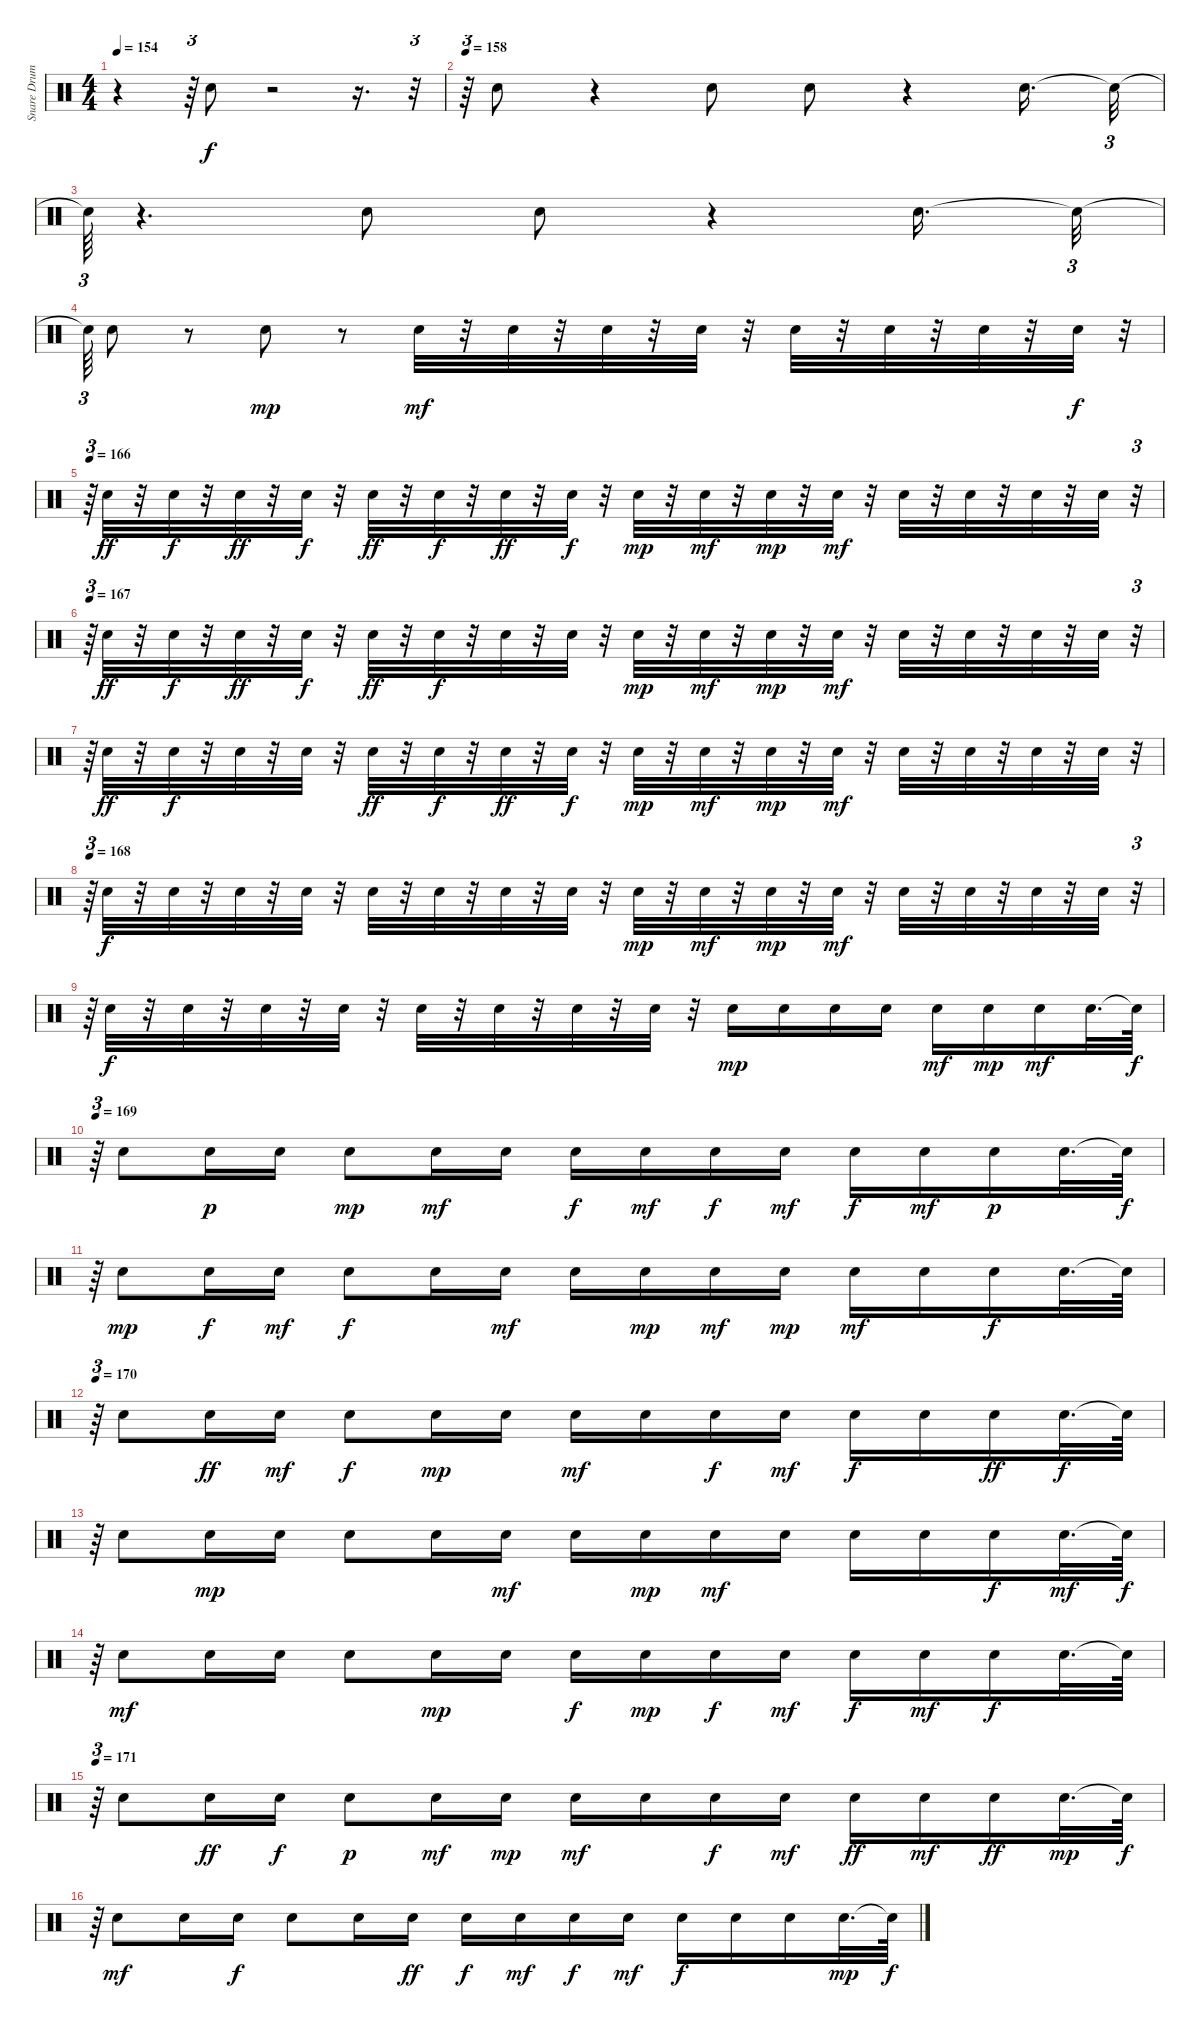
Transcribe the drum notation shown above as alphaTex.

\track ("Snare Drums" "Snare Drum") {instrument percussion}
\staff {score}
\articulation defaults
\ts (4 4)
\tempo 154
\clef neutral
\ks c
r.4{dy f} r.64{tu (3 2)} "Electric Snare (hit)".8 r.2 r.16{d} r.32{tu (3 2)} |
\tempo 158
r.64{tu (3 2)} "Electric Snare (hit)".8 r.4 "Electric Snare (hit)".8 "Electric Snare (hit)".8 r.4 "Electric Snare (hit)".16{d} "Snare (hit)"{t}.32{tu (3 2)} |
"Snare (hit)"{t}.64{tu (3 2)} r.4{d} "Electric Snare (hit)".8 "Electric Snare (hit)".8 r.4 "Electric Snare (hit)".16{d} "Snare (hit)"{t}.32{tu (3 2)} |
"Snare (hit)"{t}.64{tu (3 2)} "Electric Snare (hit)".8 r.8 "Electric Snare (hit)".8{dy mp} r.8 "Electric Snare (hit)".32{dy mf} r.32 "Electric Snare (hit)".32 r.32 "Electric Snare (hit)".32 r.32 "Electric Snare (hit)".32 r.32 "Electric Snare (hit)".32 r.32 "Electric Snare (hit)".32 r.32 "Electric Snare (hit)".32 r.32 "Electric Snare (hit)".32{dy f} r.32{tu (3 2)} |
\tempo 166
r.64{tu (3 2)} "Electric Snare (hit)".32{dy ff} r.32 "Electric Snare (hit)".32{dy f} r.32 "Electric Snare (hit)".32{dy ff} r.32 "Electric Snare (hit)".32{dy f} r.32 "Electric Snare (hit)".32{dy ff} r.32 "Electric Snare (hit)".32{dy f} r.32 "Electric Snare (hit)".32{dy ff} r.32 "Electric Snare (hit)".32{dy f} r.32 "Electric Snare (hit)".32{dy mp} r.32 "Electric Snare (hit)".32{dy mf} r.32 "Electric Snare (hit)".32{dy mp} r.32 "Electric Snare (hit)".32{dy mf} r.32 "Electric Snare (hit)".32 r.32 "Electric Snare (hit)".32 r.32 "Electric Snare (hit)".32 r.32 "Electric Snare (hit)".32 r.32{tu (3 2)} |
\tempo 167
r.64{tu (3 2)} "Electric Snare (hit)".32{dy ff} r.32 "Electric Snare (hit)".32{dy f} r.32 "Electric Snare (hit)".32{dy ff} r.32 "Electric Snare (hit)".32{dy f} r.32 "Electric Snare (hit)".32{dy ff} r.32 "Electric Snare (hit)".32{dy f} r.32 "Electric Snare (hit)".32 r.32 "Electric Snare (hit)".32 r.32 "Electric Snare (hit)".32{dy mp} r.32 "Electric Snare (hit)".32{dy mf} r.32 "Electric Snare (hit)".32{dy mp} r.32 "Electric Snare (hit)".32{dy mf} r.32 "Electric Snare (hit)".32 r.32 "Electric Snare (hit)".32 r.32 "Electric Snare (hit)".32 r.32 "Electric Snare (hit)".32 r.32{tu (3 2)} |
r.64{tu (3 2)} "Electric Snare (hit)".32{dy ff} r.32 "Electric Snare (hit)".32{dy f} r.32 "Electric Snare (hit)".32 r.32 "Electric Snare (hit)".32 r.32 "Electric Snare (hit)".32{dy ff} r.32 "Electric Snare (hit)".32{dy f} r.32 "Electric Snare (hit)".32{dy ff} r.32 "Electric Snare (hit)".32{dy f} r.32 "Electric Snare (hit)".32{dy mp} r.32 "Electric Snare (hit)".32{dy mf} r.32 "Electric Snare (hit)".32{dy mp} r.32 "Electric Snare (hit)".32{dy mf} r.32 "Electric Snare (hit)".32 r.32 "Electric Snare (hit)".32 r.32 "Electric Snare (hit)".32 r.32 "Electric Snare (hit)".32 r.32{tu (3 2)} |
\tempo 168
r.64{tu (3 2)} "Electric Snare (hit)".32{dy f} r.32 "Electric Snare (hit)".32 r.32 "Electric Snare (hit)".32 r.32 "Electric Snare (hit)".32 r.32 "Electric Snare (hit)".32 r.32 "Electric Snare (hit)".32 r.32 "Electric Snare (hit)".32 r.32 "Electric Snare (hit)".32 r.32 "Electric Snare (hit)".32{dy mp} r.32 "Electric Snare (hit)".32{dy mf} r.32 "Electric Snare (hit)".32{dy mp} r.32 "Electric Snare (hit)".32{dy mf} r.32 "Electric Snare (hit)".32 r.32 "Electric Snare (hit)".32 r.32 "Electric Snare (hit)".32 r.32 "Electric Snare (hit)".32 r.32{tu (3 2)} |
r.64{tu (3 2)} "Electric Snare (hit)".32{dy f} r.32 "Electric Snare (hit)".32 r.32 "Electric Snare (hit)".32 r.32 "Electric Snare (hit)".32 r.32 "Electric Snare (hit)".32 r.32 "Electric Snare (hit)".32 r.32 "Electric Snare (hit)".32 r.32 "Electric Snare (hit)".32 r.32 "Electric Snare (hit)".16{dy mp} "Electric Snare (hit)".16 "Electric Snare (hit)".16 "Electric Snare (hit)".16 "Electric Snare (hit)".16{dy mf} "Electric Snare (hit)".16{dy mp} "Electric Snare (hit)".16{dy mf} "Electric Snare (hit)".32{d} "Snare (hit)"{t}.64{dy f} |
\tempo 169
r.64{tu (3 2)} "Electric Snare (hit)".8 "Electric Snare (hit)".16{dy p} "Electric Snare (hit)".16 "Electric Snare (hit)".8{dy mp} "Electric Snare (hit)".16{dy mf} "Electric Snare (hit)".16 "Electric Snare (hit)".16{dy f} "Electric Snare (hit)".16{dy mf} "Electric Snare (hit)".16{dy f} "Electric Snare (hit)".16{dy mf} "Electric Snare (hit)".16{dy f} "Electric Snare (hit)".16{dy mf} "Electric Snare (hit)".16{dy p} "Electric Snare (hit)".32{d} "Snare (hit)"{t}.64{dy f} |
r.64{tu (3 2)} "Electric Snare (hit)".8{dy mp} "Electric Snare (hit)".16{dy f} "Electric Snare (hit)".16{dy mf} "Electric Snare (hit)".8{dy f} "Electric Snare (hit)".16 "Electric Snare (hit)".16{dy mf} "Electric Snare (hit)".16 "Electric Snare (hit)".16{dy mp} "Electric Snare (hit)".16{dy mf} "Electric Snare (hit)".16{dy mp} "Electric Snare (hit)".16{dy mf} "Electric Snare (hit)".16 "Electric Snare (hit)".16{dy f} "Electric Snare (hit)".32{d} "Snare (hit)"{t}.64 |
\tempo 170
r.64{tu (3 2)} "Electric Snare (hit)".8 "Electric Snare (hit)".16{dy ff} "Electric Snare (hit)".16{dy mf} "Electric Snare (hit)".8{dy f} "Electric Snare (hit)".16{dy mp} "Electric Snare (hit)".16 "Electric Snare (hit)".16{dy mf} "Electric Snare (hit)".16 "Electric Snare (hit)".16{dy f} "Electric Snare (hit)".16{dy mf} "Electric Snare (hit)".16{dy f} "Electric Snare (hit)".16 "Electric Snare (hit)".16{dy ff} "Electric Snare (hit)".32{d dy f} "Snare (hit)"{t}.64 |
r.64{tu (3 2)} "Electric Snare (hit)".8 "Electric Snare (hit)".16{dy mp} "Electric Snare (hit)".16 "Electric Snare (hit)".8 "Electric Snare (hit)".16 "Electric Snare (hit)".16{dy mf} "Electric Snare (hit)".16 "Electric Snare (hit)".16{dy mp} "Electric Snare (hit)".16{dy mf} "Electric Snare (hit)".16 "Electric Snare (hit)".16 "Electric Snare (hit)".16 "Electric Snare (hit)".16{dy f} "Electric Snare (hit)".32{d dy mf} "Snare (hit)"{t}.64{dy f} |
r.64{tu (3 2)} "Electric Snare (hit)".8{dy mf} "Electric Snare (hit)".16 "Electric Snare (hit)".16 "Electric Snare (hit)".8 "Electric Snare (hit)".16{dy mp} "Electric Snare (hit)".16 "Electric Snare (hit)".16{dy f} "Electric Snare (hit)".16{dy mp} "Electric Snare (hit)".16{dy f} "Electric Snare (hit)".16{dy mf} "Electric Snare (hit)".16{dy f} "Electric Snare (hit)".16{dy mf} "Electric Snare (hit)".16{dy f} "Electric Snare (hit)".32{d} "Snare (hit)"{t}.64 |
\tempo 171
r.64{tu (3 2)} "Electric Snare (hit)".8 "Electric Snare (hit)".16{dy ff} "Electric Snare (hit)".16{dy f} "Electric Snare (hit)".8{dy p} "Electric Snare (hit)".16{dy mf} "Electric Snare (hit)".16{dy mp} "Electric Snare (hit)".16{dy mf} "Electric Snare (hit)".16 "Electric Snare (hit)".16{dy f} "Electric Snare (hit)".16{dy mf} "Electric Snare (hit)".16{dy ff} "Electric Snare (hit)".16{dy mf} "Electric Snare (hit)".16{dy ff} "Electric Snare (hit)".32{d dy mp} "Snare (hit)"{t}.64{dy f} |
r.64{tu (3 2)} "Electric Snare (hit)".8{dy mf} "Electric Snare (hit)".16 "Electric Snare (hit)".16{dy f} "Electric Snare (hit)".8 "Electric Snare (hit)".16 "Electric Snare (hit)".16{dy ff} "Electric Snare (hit)".16{dy f} "Electric Snare (hit)".16{dy mf} "Electric Snare (hit)".16{dy f} "Electric Snare (hit)".16{dy mf} "Electric Snare (hit)".16{dy f} "Electric Snare (hit)".16 "Electric Snare (hit)".16 "Electric Snare (hit)".32{d dy mp} "Snare (hit)"{t}.64{dy f}
